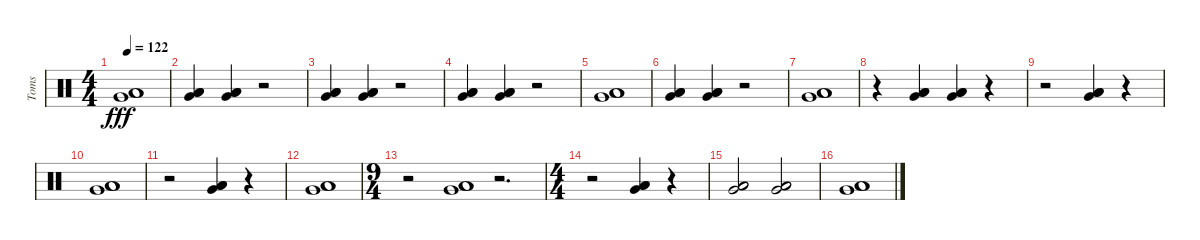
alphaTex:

\track ("Toms" "Toms") {instrument percussion}
\staff {score}
\articulation defaults
\ts (4 4)
\tempo 122
\clef neutral
\ks c
("Low Tom (hit)" "Very Low Tom (hit)" "Low Tom (hit)").1{dy fff} |
("Low Tom (hit)" "Very Low Tom (hit)" "Low Tom (hit)").4 ("Low Tom (hit)" "Very Low Tom (hit)" "Low Tom (hit)").4 r.2 |
("Low Tom (hit)" "Very Low Tom (hit)" "Low Tom (hit)").4 ("Low Tom (hit)" "Very Low Tom (hit)" "Low Tom (hit)").4 r.2 |
("Low Tom (hit)" "Very Low Tom (hit)" "Low Tom (hit)").4 ("Low Tom (hit)" "Very Low Tom (hit)" "Low Tom (hit)").4 r.2 |
("Low Tom (hit)" "Very Low Tom (hit)" "Low Tom (hit)").1 |
("Low Tom (hit)" "Very Low Tom (hit)" "Low Tom (hit)").4 ("Low Tom (hit)" "Very Low Tom (hit)" "Low Tom (hit)").4 r.2 |
("Low Tom (hit)" "Very Low Tom (hit)" "Low Tom (hit)").1 |
r.4 ("Low Tom (hit)" "Very Low Tom (hit)" "Low Tom (hit)").4 ("Low Tom (hit)" "Very Low Tom (hit)" "Low Tom (hit)").4 r.4 |
r.2 ("Low Tom (hit)" "Very Low Tom (hit)" "Low Tom (hit)").4 r.4 |
("Low Tom (hit)" "Very Low Tom (hit)" "Low Tom (hit)").1 |
r.2 ("Low Tom (hit)" "Very Low Tom (hit)" "Low Tom (hit)").4 r.4 |
("Low Tom (hit)" "Very Low Tom (hit)" "Low Tom (hit)").1 |
\ts (9 4)
r.2 ("Very Low Tom (hit)" "Low Tom (hit)" "Low Tom (hit)").1 r.2{d} |
\ts (4 4)
r.2 ("Low Tom (hit)" "Very Low Tom (hit)" "Low Tom (hit)").4 r.4 |
("Low Tom (hit)" "Very Low Tom (hit)" "Low Tom (hit)").2 ("Low Tom (hit)" "Very Low Tom (hit)" "Low Tom (hit)").2 |
("Low Tom (hit)" "Very Low Tom (hit)" "Low Tom (hit)").1
